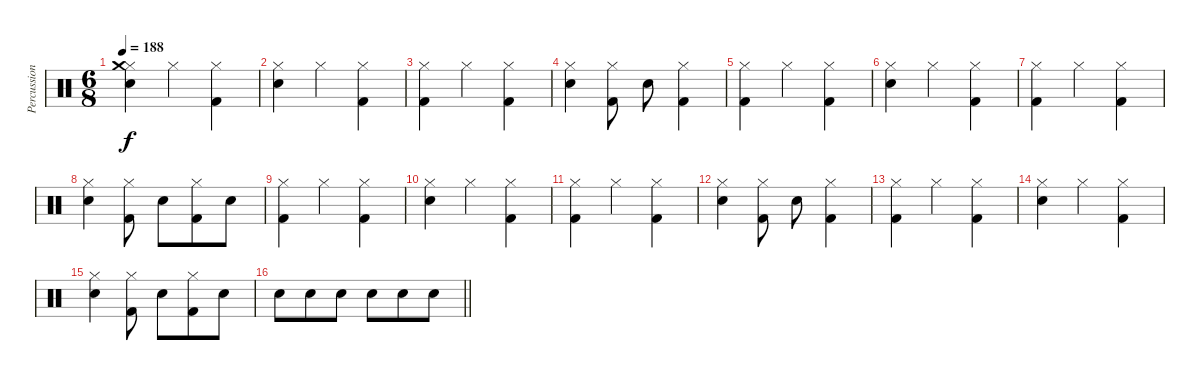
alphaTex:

\track ("Percussion" "Percussion") {instrument percussion}
\staff {score}
\articulation defaults
\ts (6 8)
\tempo 188
\clef neutral
\ks c
("Hi-Hat (closed)" "Crash medium (hit)" "Snare (hit) 2").4{dy f} "Hi-Hat (closed)".4 ("Hi-Hat (closed)" "Kick (hit) 2").4 |
("Hi-Hat (closed)" "Snare (hit) 2").4 "Hi-Hat (closed)".4 ("Hi-Hat (closed)" "Kick (hit) 2").4 |
("Hi-Hat (closed)" "Kick (hit) 2").4 "Hi-Hat (closed)".4 ("Hi-Hat (closed)" "Kick (hit) 2").4 |
("Hi-Hat (closed)" "Snare (hit) 2").4 ("Hi-Hat (closed)" "Kick (hit) 2").8 "Electric Snare (hit)".8 ("Hi-Hat (closed)" "Kick (hit) 2").4 |
("Hi-Hat (closed)" "Kick (hit) 2").4 "Hi-Hat (closed)".4 ("Hi-Hat (closed)" "Kick (hit) 2").4 |
("Hi-Hat (closed)" "Snare (hit) 2").4 "Hi-Hat (closed)".4 ("Hi-Hat (closed)" "Kick (hit) 2").4 |
("Hi-Hat (closed)" "Kick (hit) 2").4 "Hi-Hat (closed)".4 ("Hi-Hat (closed)" "Kick (hit) 2").4 |
("Hi-Hat (closed)" "Snare (hit) 2").4 ("Hi-Hat (closed)" "Kick (hit) 2").8 "Electric Snare (hit)".8 ("Hi-Hat (closed)" "Kick (hit) 2").8 "Electric Snare (hit)".8 |
("Hi-Hat (closed)" "Kick (hit) 2").4 "Hi-Hat (closed)".4 ("Hi-Hat (closed)" "Kick (hit) 2").4 |
("Hi-Hat (closed)" "Snare (hit) 2").4 "Hi-Hat (closed)".4 ("Hi-Hat (closed)" "Kick (hit) 2").4 |
("Hi-Hat (closed)" "Kick (hit) 2").4 "Hi-Hat (closed)".4 ("Hi-Hat (closed)" "Kick (hit) 2").4 |
("Hi-Hat (closed)" "Snare (hit) 2").4 ("Hi-Hat (closed)" "Kick (hit) 2").8 "Electric Snare (hit)".8 ("Hi-Hat (closed)" "Kick (hit) 2").4 |
("Hi-Hat (closed)" "Kick (hit) 2").4 "Hi-Hat (closed)".4 ("Hi-Hat (closed)" "Kick (hit) 2").4 |
("Hi-Hat (closed)" "Snare (hit) 2").4 "Hi-Hat (closed)".4 ("Hi-Hat (closed)" "Kick (hit) 2").4 |
("Hi-Hat (closed)" "Snare (hit) 2").4 ("Hi-Hat (closed)" "Kick (hit) 2").8 "Electric Snare (hit)".8 ("Hi-Hat (closed)" "Kick (hit) 2").8 "Electric Snare (hit)".8 |
\barLineRight lightlight "Snare (hit) 2".8 "Snare (hit) 2".8 "Snare (hit) 2".8 "Snare (hit) 2".8 "Snare (hit) 2".8 "Snare (hit) 2".8
